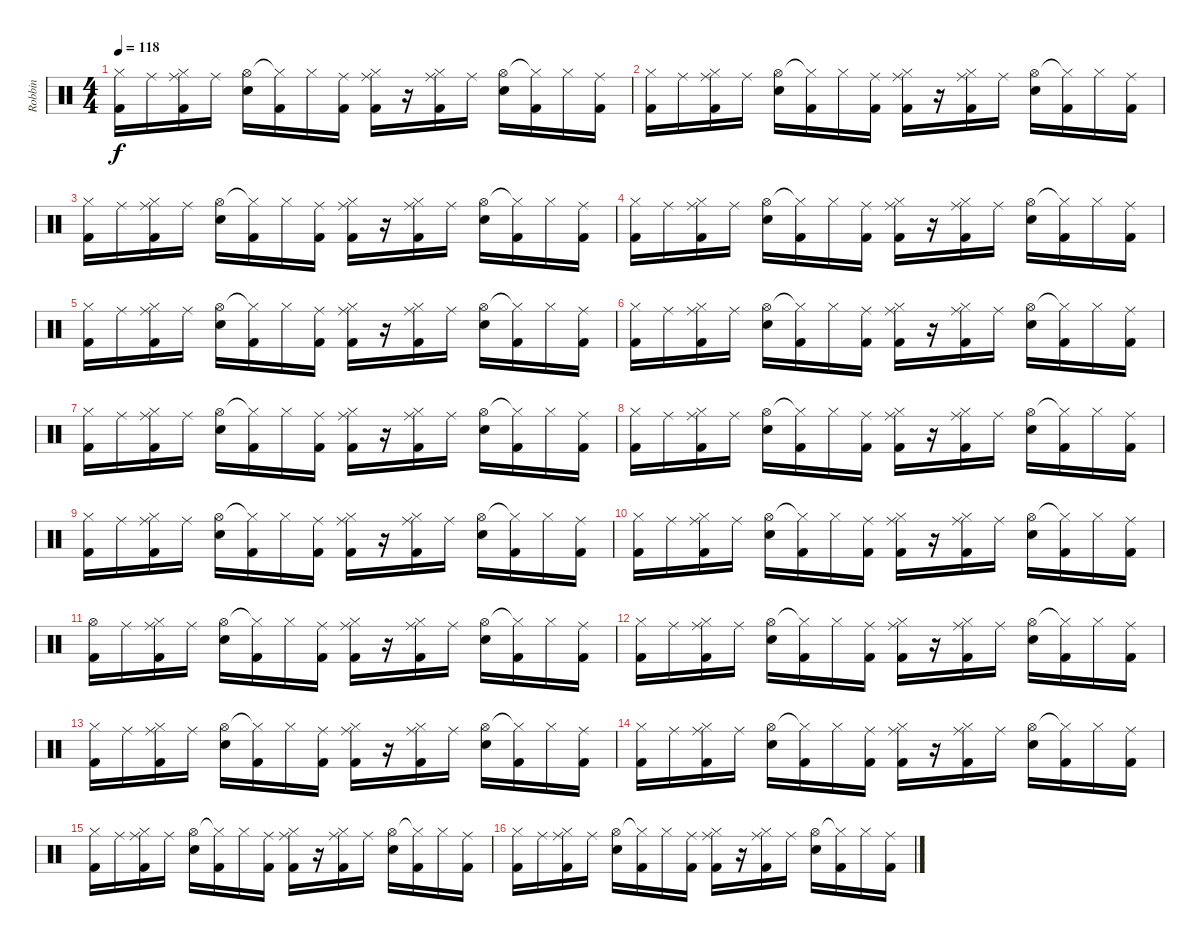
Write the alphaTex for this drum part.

\track ("Robbin" "Robbin") {instrument percussion}
\staff {score}
\articulation defaults
\ts (4 4)
\tempo 118
\clef neutral
\ks c
("Hi-Hat (closed)" "Kick (hit) 2").16{dy f} "Ride (middle)".16 ("Hi-Hat (closed)" "Ride (middle)" "Kick (hit) 2").16 "Ride (middle)".16 ("Hi-Hat (open)" "Snare (hit) 2").16 ("Hi-Hat (closed)"{t} "Kick (hit) 2").16 "Hi-Hat (closed)".16 ("Ride (middle)" "Kick (hit) 2").16 ("Hi-Hat (closed)" "Ride (middle)" "Kick (hit) 2").16 r.16 ("Hi-Hat (closed)" "Ride (middle)" "Kick (hit) 2").16 "Ride (middle)".16 ("Hi-Hat (open)" "Snare (hit) 2").16 ("Hi-Hat (closed)"{t} "Kick (hit) 2").16 "Hi-Hat (closed)".16 ("Ride (middle)" "Kick (hit) 2").16 |
("Hi-Hat (closed)" "Kick (hit) 2").16 "Ride (middle)".16 ("Hi-Hat (closed)" "Ride (middle)" "Kick (hit) 2").16 "Ride (middle)".16 ("Hi-Hat (open)" "Snare (hit) 2").16 ("Hi-Hat (closed)"{t} "Kick (hit) 2").16 "Hi-Hat (closed)".16 ("Ride (middle)" "Kick (hit) 2").16 ("Hi-Hat (closed)" "Ride (middle)" "Kick (hit) 2").16 r.16 ("Hi-Hat (closed)" "Ride (middle)" "Kick (hit) 2").16 "Ride (middle)".16 ("Hi-Hat (open)" "Snare (hit) 2").16 ("Hi-Hat (closed)"{t} "Kick (hit) 2").16 "Hi-Hat (closed)".16 ("Ride (middle)" "Kick (hit) 2").16 |
("Hi-Hat (closed)" "Kick (hit) 2").16 "Ride (middle)".16 ("Hi-Hat (closed)" "Ride (middle)" "Kick (hit) 2").16 "Ride (middle)".16 ("Hi-Hat (open)" "Snare (hit) 2").16 ("Hi-Hat (closed)"{t} "Kick (hit) 2").16 "Hi-Hat (closed)".16 ("Ride (middle)" "Kick (hit) 2").16 ("Hi-Hat (closed)" "Ride (middle)" "Kick (hit) 2").16 r.16 ("Hi-Hat (closed)" "Ride (middle)" "Kick (hit) 2").16 "Ride (middle)".16 ("Hi-Hat (open)" "Snare (hit) 2").16 ("Hi-Hat (closed)"{t} "Kick (hit) 2").16 "Hi-Hat (closed)".16 ("Ride (middle)" "Kick (hit) 2").16 |
("Hi-Hat (closed)" "Kick (hit) 2").16 "Ride (middle)".16 ("Hi-Hat (closed)" "Ride (middle)" "Kick (hit) 2").16 "Ride (middle)".16 ("Hi-Hat (open)" "Snare (hit) 2").16 ("Hi-Hat (closed)"{t} "Kick (hit) 2").16 "Hi-Hat (closed)".16 ("Ride (middle)" "Kick (hit) 2").16 ("Hi-Hat (closed)" "Ride (middle)" "Kick (hit) 2").16 r.16 ("Hi-Hat (closed)" "Ride (middle)" "Kick (hit) 2").16 "Ride (middle)".16 ("Hi-Hat (open)" "Snare (hit) 2").16 ("Hi-Hat (closed)"{t} "Kick (hit) 2").16 "Hi-Hat (closed)".16 ("Ride (middle)" "Kick (hit) 2").16 |
("Hi-Hat (closed)" "Kick (hit) 2").16 "Ride (middle)".16 ("Hi-Hat (closed)" "Ride (middle)" "Kick (hit) 2").16 "Ride (middle)".16 ("Hi-Hat (open)" "Snare (hit) 2").16 ("Hi-Hat (closed)"{t} "Kick (hit) 2").16 "Hi-Hat (closed)".16 ("Ride (middle)" "Kick (hit) 2").16 ("Hi-Hat (closed)" "Ride (middle)" "Kick (hit) 2").16 r.16 ("Hi-Hat (closed)" "Ride (middle)" "Kick (hit) 2").16 "Ride (middle)".16 ("Hi-Hat (open)" "Snare (hit) 2").16 ("Hi-Hat (closed)"{t} "Kick (hit) 2").16 "Hi-Hat (closed)".16 ("Ride (middle)" "Kick (hit) 2").16 |
("Hi-Hat (closed)" "Kick (hit) 2").16 "Ride (middle)".16 ("Hi-Hat (closed)" "Ride (middle)" "Kick (hit) 2").16 "Ride (middle)".16 ("Hi-Hat (open)" "Snare (hit) 2").16 ("Hi-Hat (closed)"{t} "Kick (hit) 2").16 "Hi-Hat (closed)".16 ("Ride (middle)" "Kick (hit) 2").16 ("Hi-Hat (closed)" "Ride (middle)" "Kick (hit) 2").16 r.16 ("Hi-Hat (closed)" "Ride (middle)" "Kick (hit) 2").16 "Ride (middle)".16 ("Hi-Hat (open)" "Snare (hit) 2").16 ("Hi-Hat (closed)"{t} "Kick (hit) 2").16 "Hi-Hat (closed)".16 ("Ride (middle)" "Kick (hit) 2").16 |
("Hi-Hat (closed)" "Kick (hit) 2").16 "Ride (middle)".16 ("Hi-Hat (closed)" "Ride (middle)" "Kick (hit) 2").16 "Ride (middle)".16 ("Hi-Hat (open)" "Snare (hit) 2").16 ("Hi-Hat (closed)"{t} "Kick (hit) 2").16 "Hi-Hat (closed)".16 ("Ride (middle)" "Kick (hit) 2").16 ("Hi-Hat (closed)" "Ride (middle)" "Kick (hit) 2").16 r.16 ("Hi-Hat (closed)" "Ride (middle)" "Kick (hit) 2").16 "Ride (middle)".16 ("Hi-Hat (open)" "Snare (hit) 2").16 ("Hi-Hat (closed)"{t} "Kick (hit) 2").16 "Hi-Hat (closed)".16 ("Ride (middle)" "Kick (hit) 2").16 |
("Hi-Hat (closed)" "Kick (hit) 2").16 "Ride (middle)".16 ("Hi-Hat (closed)" "Ride (middle)" "Kick (hit) 2").16 "Ride (middle)".16 ("Hi-Hat (open)" "Snare (hit) 2").16 ("Hi-Hat (closed)"{t} "Kick (hit) 2").16 "Hi-Hat (closed)".16 ("Ride (middle)" "Kick (hit) 2").16 ("Hi-Hat (closed)" "Ride (middle)" "Kick (hit) 2").16 r.16 ("Hi-Hat (closed)" "Ride (middle)" "Kick (hit) 2").16 "Ride (middle)".16 ("Hi-Hat (open)" "Snare (hit) 2").16 ("Hi-Hat (closed)"{t} "Kick (hit) 2").16 "Hi-Hat (closed)".16 ("Ride (middle)" "Kick (hit) 2").16 |
("Hi-Hat (closed)" "Kick (hit) 2").16 "Ride (middle)".16 ("Hi-Hat (closed)" "Ride (middle)" "Kick (hit) 2").16 "Ride (middle)".16 ("Hi-Hat (open)" "Snare (hit) 2").16 ("Hi-Hat (closed)"{t} "Kick (hit) 2").16 "Hi-Hat (closed)".16 ("Ride (middle)" "Kick (hit) 2").16 ("Hi-Hat (closed)" "Ride (middle)" "Kick (hit) 2").16 r.16 ("Hi-Hat (closed)" "Ride (middle)" "Kick (hit) 2").16 "Ride (middle)".16 ("Hi-Hat (open)" "Snare (hit) 2").16 ("Hi-Hat (closed)"{t} "Kick (hit) 2").16 "Hi-Hat (closed)".16 ("Ride (middle)" "Kick (hit) 2").16 |
("Hi-Hat (closed)" "Kick (hit) 2").16 "Ride (middle)".16 ("Hi-Hat (closed)" "Ride (middle)" "Kick (hit) 2").16 "Ride (middle)".16 ("Hi-Hat (open)" "Snare (hit) 2").16 ("Hi-Hat (closed)"{t} "Kick (hit) 2").16 "Hi-Hat (closed)".16 ("Ride (middle)" "Kick (hit) 2").16 ("Hi-Hat (closed)" "Ride (middle)" "Kick (hit) 2").16 r.16 ("Hi-Hat (closed)" "Ride (middle)" "Kick (hit) 2").16 "Ride (middle)".16 ("Hi-Hat (open)" "Snare (hit) 2").16 ("Hi-Hat (closed)"{t} "Kick (hit) 2").16 "Hi-Hat (closed)".16 ("Ride (middle)" "Kick (hit) 2").16 |
("Hi-Hat (open)" "Kick (hit) 2").16 "Ride (middle)".16 ("Hi-Hat (closed)" "Ride (middle)" "Kick (hit) 2").16 "Ride (middle)".16 ("Hi-Hat (open)" "Snare (hit) 2").16 ("Hi-Hat (closed)"{t} "Kick (hit) 2").16 "Hi-Hat (closed)".16 ("Ride (middle)" "Kick (hit) 2").16 ("Hi-Hat (closed)" "Ride (middle)" "Kick (hit) 2").16 r.16 ("Hi-Hat (closed)" "Ride (middle)" "Kick (hit) 2").16 "Ride (middle)".16 ("Hi-Hat (open)" "Snare (hit) 2").16 ("Hi-Hat (closed)"{t} "Kick (hit) 2").16 "Hi-Hat (closed)".16 ("Ride (middle)" "Kick (hit) 2").16 |
("Hi-Hat (closed)" "Kick (hit) 2").16 "Ride (middle)".16 ("Hi-Hat (closed)" "Ride (middle)" "Kick (hit) 2").16 "Ride (middle)".16 ("Hi-Hat (open)" "Snare (hit) 2").16 ("Hi-Hat (closed)"{t} "Kick (hit) 2").16 "Hi-Hat (closed)".16 ("Ride (middle)" "Kick (hit) 2").16 ("Hi-Hat (closed)" "Ride (middle)" "Kick (hit) 2").16 r.16 ("Hi-Hat (closed)" "Ride (middle)" "Kick (hit) 2").16 "Ride (middle)".16 ("Hi-Hat (open)" "Snare (hit) 2").16 ("Hi-Hat (closed)"{t} "Kick (hit) 2").16 "Hi-Hat (closed)".16 ("Ride (middle)" "Kick (hit) 2").16 |
("Hi-Hat (closed)" "Kick (hit) 2").16 "Ride (middle)".16 ("Hi-Hat (closed)" "Ride (middle)" "Kick (hit) 2").16 "Ride (middle)".16 ("Hi-Hat (open)" "Snare (hit) 2").16 ("Hi-Hat (closed)"{t} "Kick (hit) 2").16 "Hi-Hat (closed)".16 ("Ride (middle)" "Kick (hit) 2").16 ("Hi-Hat (closed)" "Ride (middle)" "Kick (hit) 2").16 r.16 ("Hi-Hat (closed)" "Ride (middle)" "Kick (hit) 2").16 "Ride (middle)".16 ("Hi-Hat (open)" "Snare (hit) 2").16 ("Hi-Hat (closed)"{t} "Kick (hit) 2").16 "Hi-Hat (closed)".16 ("Ride (middle)" "Kick (hit) 2").16 |
("Hi-Hat (closed)" "Kick (hit) 2").16 "Ride (middle)".16 ("Hi-Hat (closed)" "Ride (middle)" "Kick (hit) 2").16 "Ride (middle)".16 ("Hi-Hat (open)" "Snare (hit) 2").16 ("Hi-Hat (closed)"{t} "Kick (hit) 2").16 "Hi-Hat (closed)".16 ("Ride (middle)" "Kick (hit) 2").16 ("Hi-Hat (closed)" "Ride (middle)" "Kick (hit) 2").16 r.16 ("Hi-Hat (closed)" "Ride (middle)" "Kick (hit) 2").16 "Ride (middle)".16 ("Hi-Hat (open)" "Snare (hit) 2").16 ("Hi-Hat (closed)"{t} "Kick (hit) 2").16 "Hi-Hat (closed)".16 ("Ride (middle)" "Kick (hit) 2").16 |
("Hi-Hat (closed)" "Kick (hit) 2").16 "Ride (middle)".16 ("Hi-Hat (closed)" "Ride (middle)" "Kick (hit) 2").16 "Ride (middle)".16 ("Hi-Hat (open)" "Snare (hit) 2").16 ("Hi-Hat (closed)"{t} "Kick (hit) 2").16 "Hi-Hat (closed)".16 ("Ride (middle)" "Kick (hit) 2").16 ("Hi-Hat (closed)" "Ride (middle)" "Kick (hit) 2").16 r.16 ("Hi-Hat (closed)" "Ride (middle)" "Kick (hit) 2").16 "Ride (middle)".16 ("Hi-Hat (open)" "Snare (hit) 2").16 ("Hi-Hat (closed)"{t} "Kick (hit) 2").16 "Hi-Hat (closed)".16 ("Ride (middle)" "Kick (hit) 2").16 |
("Hi-Hat (closed)" "Kick (hit) 2").16 "Ride (middle)".16 ("Hi-Hat (closed)" "Ride (middle)" "Kick (hit) 2").16 "Ride (middle)".16 ("Hi-Hat (open)" "Snare (hit) 2").16 ("Hi-Hat (closed)"{t} "Kick (hit) 2").16 "Hi-Hat (closed)".16 ("Ride (middle)" "Kick (hit) 2").16 ("Hi-Hat (closed)" "Ride (middle)" "Kick (hit) 2").16 r.16 ("Hi-Hat (closed)" "Ride (middle)" "Kick (hit) 2").16 "Ride (middle)".16 ("Hi-Hat (open)" "Snare (hit) 2").16 ("Hi-Hat (closed)"{t} "Kick (hit) 2").16 "Hi-Hat (closed)".16 ("Ride (middle)" "Kick (hit) 2").16
